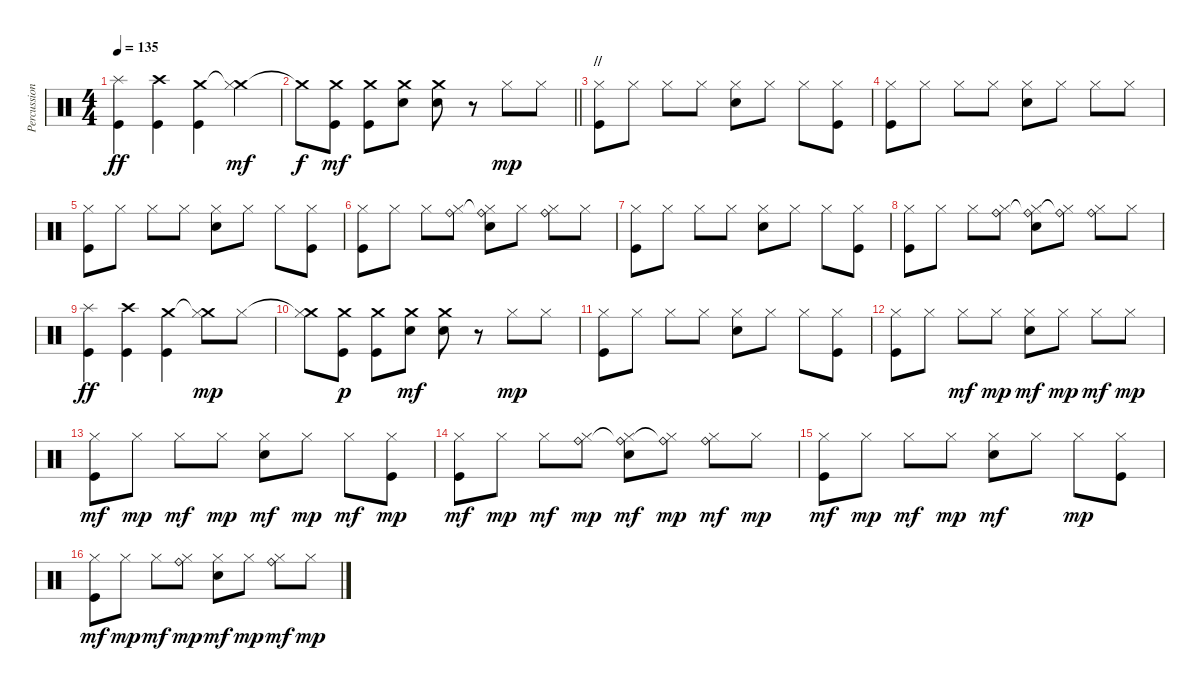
\track ("Percussion" "Percussion") {instrument percussion}
\staff {score}
\articulation defaults
\ts (4 4)
\tempo 135
\clef neutral
\ks c
("Splash (hit)" "Kick (hit)").4{dy ff} ("Crash high (hit)" "Kick (hit)").4 ("Crash medium (hit)" "Kick (hit)").4 ("Crash medium (hit)"{t} "Hi-Hat (closed)").4{dy mf} |
\barLineRight lightlight "Crash medium (hit)"{t}.8{dy f}
("Crash medium (hit)" "Kick (hit)").8{dy mf} ("Crash medium (hit)" "Kick (hit)").8 ("Crash medium (hit)" "Electric Snare (hit)").8 ("Crash medium (hit)" "Electric Snare (hit)").8 r.8 "Hi-Hat (closed)".8{dy mp} "Hi-Hat (closed)".8 |
\section ("" "//")
("Hi-Hat (closed)" "Kick (hit)").8 "Hi-Hat (closed)".8 "Hi-Hat (closed)".8 "Hi-Hat (closed)".8 ("Hi-Hat (closed)" "Electric Snare (hit)").8 "Hi-Hat (closed)".8 "Hi-Hat (closed)".8 ("Hi-Hat (closed)" "Kick (hit)").8 |
("Hi-Hat (closed)" "Kick (hit)").8 "Hi-Hat (closed)".8 "Hi-Hat (closed)".8 "Hi-Hat (closed)".8 ("Hi-Hat (closed)" "Electric Snare (hit)").8 "Hi-Hat (closed)".8 "Hi-Hat (closed)".8 "Hi-Hat (closed)".8 |
("Hi-Hat (closed)" "Kick (hit)").8 "Hi-Hat (closed)".8 "Hi-Hat (closed)".8 "Hi-Hat (closed)".8 ("Hi-Hat (closed)" "Electric Snare (hit)").8 "Hi-Hat (closed)".8 "Hi-Hat (closed)".8 ("Hi-Hat (closed)" "Kick (hit)").8 |
("Hi-Hat (closed)" "Kick (hit)").8 "Hi-Hat (closed)".8 "Hi-Hat (closed)".8 ("Hi-Hat (closed)" "Ride (bell)").8 ("Hi-Hat (closed)" "Ride (bell)"{t} "Electric Snare (hit)").8 "Hi-Hat (closed)".8 ("Hi-Hat (closed)" "Ride (bell)").8 "Hi-Hat (closed)".8 |
("Hi-Hat (closed)" "Kick (hit)").8 "Hi-Hat (closed)".8 "Hi-Hat (closed)".8 "Hi-Hat (closed)".8 ("Hi-Hat (closed)" "Electric Snare (hit)").8 "Hi-Hat (closed)".8 "Hi-Hat (closed)".8 ("Hi-Hat (closed)" "Kick (hit)").8 |
("Hi-Hat (closed)" "Kick (hit)").8 "Hi-Hat (closed)".8 "Hi-Hat (closed)".8 ("Hi-Hat (closed)" "Ride (bell)").8 ("Hi-Hat (closed)" "Ride (bell)"{t} "Electric Snare (hit)").8 ("Hi-Hat (closed)" "Ride (bell)"{t}).8 ("Hi-Hat (closed)" "Ride (bell)").8 "Hi-Hat (closed)".8 |
("Splash (hit)" "Kick (hit)").4{dy ff} ("Crash high (hit)" "Kick (hit)").4 ("Crash medium (hit)" "Kick (hit)").4 ("Crash medium (hit)"{t} "Hi-Hat (closed)").8{dy mp} "Hi-Hat (closed)".8 |
("Crash medium (hit)"{t} "Hi-Hat (closed)").8 ("Crash medium (hit)" "Kick (hit)").8{dy p} ("Crash medium (hit)" "Kick (hit)").8 ("Crash medium (hit)" "Electric Snare (hit)").8{dy mf} ("Crash medium (hit)" "Electric Snare (hit)").8 r.8 "Hi-Hat (closed)".8{dy mp} "Hi-Hat (closed)".8 |
("Hi-Hat (closed)" "Kick (hit)").8 "Hi-Hat (closed)".8 "Hi-Hat (closed)".8 "Hi-Hat (closed)".8 ("Hi-Hat (closed)" "Electric Snare (hit)").8 "Hi-Hat (closed)".8 "Hi-Hat (closed)".8 ("Hi-Hat (closed)" "Kick (hit)").8 |
("Hi-Hat (closed)" "Kick (hit)").8 "Hi-Hat (closed)".8 "Hi-Hat (closed)".8{dy mf} "Hi-Hat (closed)".8{dy mp} ("Hi-Hat (closed)" "Electric Snare (hit)").8{dy mf} "Hi-Hat (closed)".8{dy mp} "Hi-Hat (closed)".8{dy mf} "Hi-Hat (closed)".8{dy mp} |
("Hi-Hat (closed)" "Kick (hit)").8{dy mf} "Hi-Hat (closed)".8{dy mp} "Hi-Hat (closed)".8{dy mf} "Hi-Hat (closed)".8{dy mp} ("Hi-Hat (closed)" "Electric Snare (hit)").8{dy mf} "Hi-Hat (closed)".8{dy mp} "Hi-Hat (closed)".8{dy mf} ("Hi-Hat (closed)" "Kick (hit)").8{dy mp} |
("Hi-Hat (closed)" "Kick (hit)").8{dy mf} "Hi-Hat (closed)".8{dy mp} "Hi-Hat (closed)".8{dy mf} ("Hi-Hat (closed)" "Ride (bell)").8{dy mp} ("Hi-Hat (closed)" "Ride (bell)"{t} "Electric Snare (hit)").8{dy mf} ("Hi-Hat (closed)" "Ride (bell)"{t}).8{dy mp} ("Hi-Hat (closed)" "Ride (bell)").8{dy mf} "Hi-Hat (closed)".8{dy mp} |
("Hi-Hat (closed)" "Kick (hit)").8{dy mf} "Hi-Hat (closed)".8{dy mp} "Hi-Hat (closed)".8{dy mf} "Hi-Hat (closed)".8{dy mp} ("Hi-Hat (closed)" "Electric Snare (hit)").8{dy mf} "Hi-Hat (closed)".8 "Hi-Hat (closed)".8{dy mp} ("Hi-Hat (closed)" "Kick (hit)").8 |
("Hi-Hat (closed)" "Kick (hit)").8{dy mf} "Hi-Hat (closed)".8{dy mp} "Hi-Hat (closed)".8{dy mf} ("Hi-Hat (closed)" "Ride (bell)").8{dy mp} ("Hi-Hat (closed)" "Electric Snare (hit)").8{dy mf} "Hi-Hat (closed)".8{dy mp} ("Hi-Hat (closed)" "Ride (bell)").8{dy mf} "Hi-Hat (closed)".8{dy mp}
